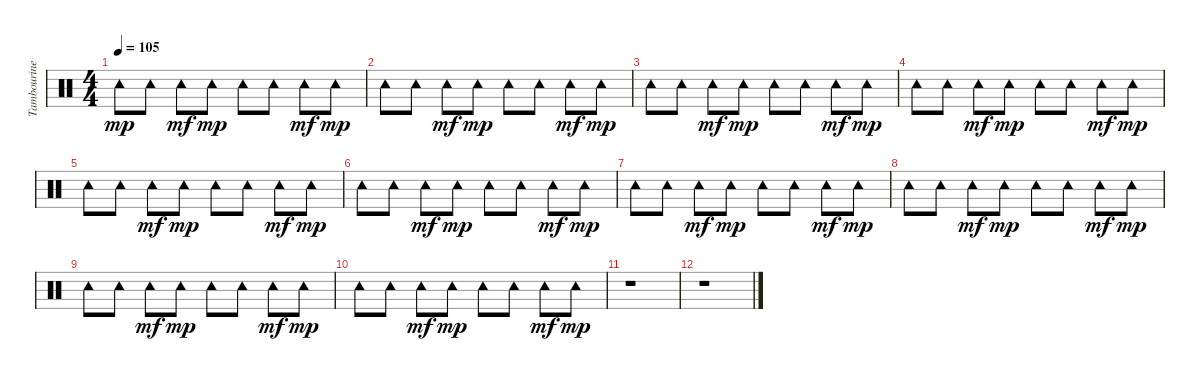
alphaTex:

\track ("Tambourine" "Tambourine") {instrument percussion}
\staff {score}
\articulation defaults
\ts (4 4)
\tempo 105
\clef neutral
\ks c "Tambourine (hit)".8{dy mp} "Tambourine (hit)".8 "Tambourine (hit)".8{dy mf} "Tambourine (hit)".8{dy mp} "Tambourine (hit)".8 "Tambourine (hit)".8 "Tambourine (hit)".8{dy mf} "Tambourine (hit)".8{dy mp}
|
"Tambourine (hit)".8 "Tambourine (hit)".8 "Tambourine (hit)".8{dy mf} "Tambourine (hit)".8{dy mp} "Tambourine (hit)".8 "Tambourine (hit)".8 "Tambourine (hit)".8{dy mf} "Tambourine (hit)".8{dy mp} |
"Tambourine (hit)".8 "Tambourine (hit)".8 "Tambourine (hit)".8{dy mf} "Tambourine (hit)".8{dy mp} "Tambourine (hit)".8 "Tambourine (hit)".8 "Tambourine (hit)".8{dy mf} "Tambourine (hit)".8{dy mp} |
"Tambourine (hit)".8 "Tambourine (hit)".8 "Tambourine (hit)".8{dy mf} "Tambourine (hit)".8{dy mp} "Tambourine (hit)".8 "Tambourine (hit)".8 "Tambourine (hit)".8{dy mf} "Tambourine (hit)".8{dy mp} |
"Tambourine (hit)".8 "Tambourine (hit)".8 "Tambourine (hit)".8{dy mf} "Tambourine (hit)".8{dy mp} "Tambourine (hit)".8 "Tambourine (hit)".8 "Tambourine (hit)".8{dy mf} "Tambourine (hit)".8{dy mp} |
"Tambourine (hit)".8 "Tambourine (hit)".8 "Tambourine (hit)".8{dy mf} "Tambourine (hit)".8{dy mp} "Tambourine (hit)".8 "Tambourine (hit)".8 "Tambourine (hit)".8{dy mf} "Tambourine (hit)".8{dy mp} |
"Tambourine (hit)".8 "Tambourine (hit)".8 "Tambourine (hit)".8{dy mf} "Tambourine (hit)".8{dy mp} "Tambourine (hit)".8 "Tambourine (hit)".8 "Tambourine (hit)".8{dy mf} "Tambourine (hit)".8{dy mp} |
"Tambourine (hit)".8 "Tambourine (hit)".8 "Tambourine (hit)".8{dy mf} "Tambourine (hit)".8{dy mp} "Tambourine (hit)".8 "Tambourine (hit)".8 "Tambourine (hit)".8{dy mf} "Tambourine (hit)".8{dy mp} |
"Tambourine (hit)".8 "Tambourine (hit)".8 "Tambourine (hit)".8{dy mf} "Tambourine (hit)".8{dy mp} "Tambourine (hit)".8 "Tambourine (hit)".8 "Tambourine (hit)".8{dy mf} "Tambourine (hit)".8{dy mp} |
"Tambourine (hit)".8 "Tambourine (hit)".8 "Tambourine (hit)".8{dy mf} "Tambourine (hit)".8{dy mp} "Tambourine (hit)".8 "Tambourine (hit)".8 "Tambourine (hit)".8{dy mf} "Tambourine (hit)".8{dy mp} |
r.1 |
r.1
